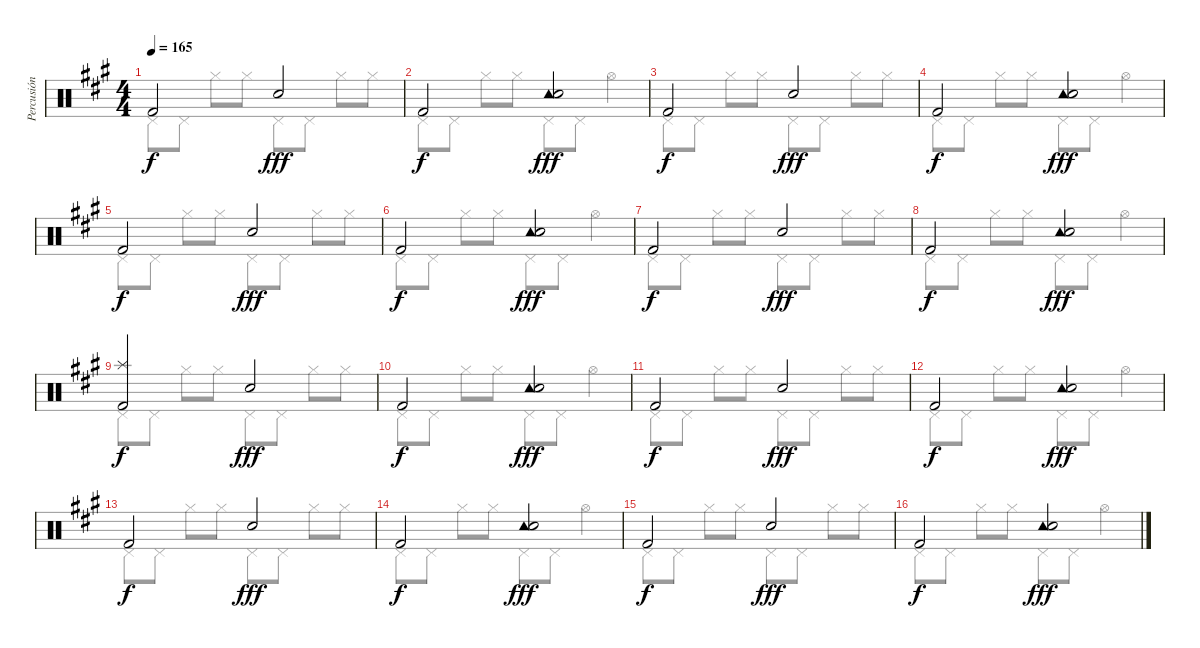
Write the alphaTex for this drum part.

\track ("Percusión" "Percusión") {instrument percussion}
\staff {score}
\articulation defaults
\voice
\ts (4 4)
\tempo 165
\clef neutral
\ks a "Kick (hit) 2".2{dy f} "Snare (hit) 2".2{dy fff}
|
"Kick (hit) 2".2{dy f} ("Tambourine (hit)" "Snare (hit) 2").2{dy fff} |
"Kick (hit) 2".2{dy f} "Snare (hit) 2".2{dy fff} |
"Kick (hit) 2".2{dy f} ("Tambourine (hit)" "Snare (hit) 2").2{dy fff} |
"Kick (hit) 2".2{dy f} "Snare (hit) 2".2{dy fff} |
"Kick (hit) 2".2{dy f} ("Tambourine (hit)" "Snare (hit) 2").2{dy fff} |
"Kick (hit) 2".2{dy f} "Snare (hit) 2".2{dy fff} |
"Kick (hit) 2".2{dy f} ("Tambourine (hit)" "Snare (hit) 2").2{dy fff} |
("Splash (hit)" "Kick (hit) 2").2{dy f} "Snare (hit) 2".2{dy fff} |
"Kick (hit) 2".2{dy f} ("Tambourine (hit)" "Snare (hit) 2").2{dy fff} |
"Kick (hit) 2".2{dy f} "Snare (hit) 2".2{dy fff} |
"Kick (hit) 2".2{dy f} ("Tambourine (hit)" "Snare (hit) 2").2{dy fff} |
"Kick (hit) 2".2{dy f} "Snare (hit) 2".2{dy fff} |
"Kick (hit) 2".2{dy f} ("Tambourine (hit)" "Snare (hit) 2").2{dy fff} |
"Kick (hit) 2".2{dy f} "Snare (hit) 2".2{dy fff} |
"Kick (hit) 2".2{dy f} ("Tambourine (hit)" "Snare (hit) 2").2{dy fff}
\voice
\clef neutral
\ottava regular
\simile none
\ks a "Pedal Hi-Hat (hit)".8{dy f} "Pedal Hi-Hat (hit)".8 "Hi-Hat (closed)".8 "Hi-Hat (closed)".8 "Pedal Hi-Hat (hit)".8 "Pedal Hi-Hat (hit)".8 "Hi-Hat (closed)".8 "Hi-Hat (closed)".8
|
"Pedal Hi-Hat (hit)".8 "Pedal Hi-Hat (hit)".8 "Hi-Hat (closed)".8 "Hi-Hat (closed)".8 "Pedal Hi-Hat (hit)".8 "Pedal Hi-Hat (hit)".8 "Hi-Hat (open)".4 |
"Pedal Hi-Hat (hit)".8 "Pedal Hi-Hat (hit)".8 "Hi-Hat (closed)".8 "Hi-Hat (closed)".8 "Pedal Hi-Hat (hit)".8 "Pedal Hi-Hat (hit)".8 "Hi-Hat (closed)".8 "Hi-Hat (closed)".8 |
"Pedal Hi-Hat (hit)".8 "Pedal Hi-Hat (hit)".8 "Hi-Hat (closed)".8 "Hi-Hat (closed)".8 "Pedal Hi-Hat (hit)".8 "Pedal Hi-Hat (hit)".8 "Hi-Hat (open)".4 |
"Pedal Hi-Hat (hit)".8 "Pedal Hi-Hat (hit)".8 "Hi-Hat (closed)".8 "Hi-Hat (closed)".8 "Pedal Hi-Hat (hit)".8 "Pedal Hi-Hat (hit)".8 "Hi-Hat (closed)".8 "Hi-Hat (closed)".8 |
"Pedal Hi-Hat (hit)".8 "Pedal Hi-Hat (hit)".8 "Hi-Hat (closed)".8 "Hi-Hat (closed)".8 "Pedal Hi-Hat (hit)".8 "Pedal Hi-Hat (hit)".8 "Hi-Hat (open)".4 |
"Pedal Hi-Hat (hit)".8 "Pedal Hi-Hat (hit)".8 "Hi-Hat (closed)".8 "Hi-Hat (closed)".8 "Pedal Hi-Hat (hit)".8 "Pedal Hi-Hat (hit)".8 "Hi-Hat (closed)".8 "Hi-Hat (closed)".8 |
"Pedal Hi-Hat (hit)".8 "Pedal Hi-Hat (hit)".8 "Hi-Hat (closed)".8 "Hi-Hat (closed)".8 "Pedal Hi-Hat (hit)".8 "Pedal Hi-Hat (hit)".8 "Hi-Hat (open)".4 |
"Pedal Hi-Hat (hit)".8 "Pedal Hi-Hat (hit)".8 "Hi-Hat (closed)".8 "Hi-Hat (closed)".8 "Pedal Hi-Hat (hit)".8 "Pedal Hi-Hat (hit)".8 "Hi-Hat (closed)".8 "Hi-Hat (closed)".8 |
"Pedal Hi-Hat (hit)".8 "Pedal Hi-Hat (hit)".8 "Hi-Hat (closed)".8 "Hi-Hat (closed)".8 "Pedal Hi-Hat (hit)".8 "Pedal Hi-Hat (hit)".8 "Hi-Hat (open)".4 |
"Pedal Hi-Hat (hit)".8 "Pedal Hi-Hat (hit)".8 "Hi-Hat (closed)".8 "Hi-Hat (closed)".8 "Pedal Hi-Hat (hit)".8 "Pedal Hi-Hat (hit)".8 "Hi-Hat (closed)".8 "Hi-Hat (closed)".8 |
"Pedal Hi-Hat (hit)".8 "Pedal Hi-Hat (hit)".8 "Hi-Hat (closed)".8 "Hi-Hat (closed)".8 "Pedal Hi-Hat (hit)".8 "Pedal Hi-Hat (hit)".8 "Hi-Hat (open)".4 |
"Pedal Hi-Hat (hit)".8 "Pedal Hi-Hat (hit)".8 "Hi-Hat (closed)".8 "Hi-Hat (closed)".8 "Pedal Hi-Hat (hit)".8 "Pedal Hi-Hat (hit)".8 "Hi-Hat (closed)".8 "Hi-Hat (closed)".8 |
"Pedal Hi-Hat (hit)".8 "Pedal Hi-Hat (hit)".8 "Hi-Hat (closed)".8 "Hi-Hat (closed)".8 "Pedal Hi-Hat (hit)".8 "Pedal Hi-Hat (hit)".8 "Hi-Hat (open)".4 |
"Pedal Hi-Hat (hit)".8 "Pedal Hi-Hat (hit)".8 "Hi-Hat (closed)".8 "Hi-Hat (closed)".8 "Pedal Hi-Hat (hit)".8 "Pedal Hi-Hat (hit)".8 "Hi-Hat (closed)".8 "Hi-Hat (closed)".8 |
"Pedal Hi-Hat (hit)".8 "Pedal Hi-Hat (hit)".8 "Hi-Hat (closed)".8 "Hi-Hat (closed)".8 "Pedal Hi-Hat (hit)".8 "Pedal Hi-Hat (hit)".8 "Hi-Hat (open)".4
